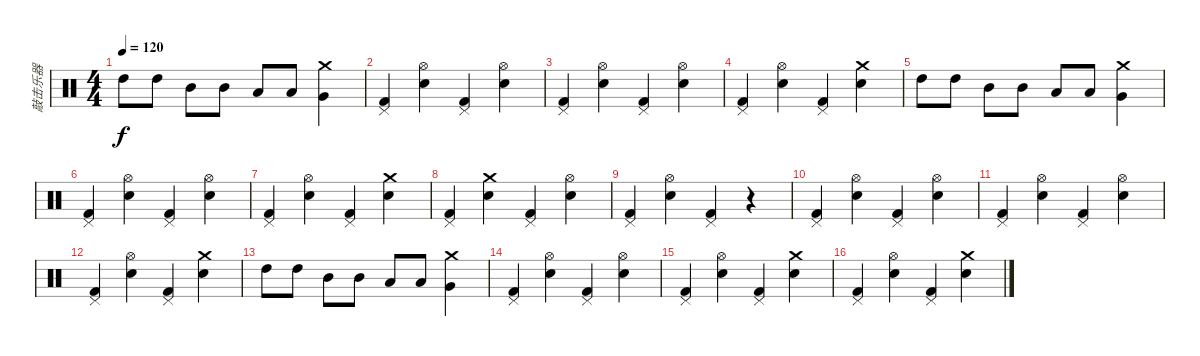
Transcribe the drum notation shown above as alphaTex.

\track ("敲击乐器" "敲击乐器") {instrument percussion}
\staff {score}
\articulation defaults
\ts (4 4)
\tempo 120
\clef neutral
\ks c "High Tom (hit)".8{dy f} "High Tom (hit)".8 "Mid Tom (hit)".8 "Mid Tom (hit)".8 "Low Tom (hit)".8 "Low Tom (hit)".8
("Crash medium (hit)" "Very Low Tom (hit)").4 |
("Pedal Hi-Hat (hit)" "Kick (hit) 2").4 ("Hi-Hat (open)" "Electric Snare (hit)").4 ("Pedal Hi-Hat (hit)" "Kick (hit) 2").4 ("Hi-Hat (open)" "Electric Snare (hit)").4 |
("Pedal Hi-Hat (hit)" "Kick (hit) 2").4 ("Hi-Hat (open)" "Electric Snare (hit)").4 ("Pedal Hi-Hat (hit)" "Kick (hit) 2").4 ("Hi-Hat (open)" "Electric Snare (hit)").4 |
("Pedal Hi-Hat (hit)" "Kick (hit) 2").4 ("Hi-Hat (open)" "Electric Snare (hit)").4 ("Pedal Hi-Hat (hit)" "Kick (hit) 2").4 ("Crash medium (hit)" "Electric Snare (hit)").4 |
"High Tom (hit)".8 "High Tom (hit)".8 "Mid Tom (hit)".8 "Mid Tom (hit)".8 "Low Tom (hit)".8 "Low Tom (hit)".8 ("Crash medium (hit)" "Very Low Tom (hit)").4 |
("Pedal Hi-Hat (hit)" "Kick (hit) 2").4 ("Hi-Hat (open)" "Electric Snare (hit)").4 ("Pedal Hi-Hat (hit)" "Kick (hit) 2").4 ("Hi-Hat (open)" "Electric Snare (hit)").4 |
("Pedal Hi-Hat (hit)" "Kick (hit) 2").4 ("Hi-Hat (open)" "Electric Snare (hit)").4 ("Pedal Hi-Hat (hit)" "Kick (hit) 2").4 ("Crash medium (hit)" "Electric Snare (hit)").4 |
("Pedal Hi-Hat (hit)" "Kick (hit) 2").4 ("Crash medium (hit)" "Electric Snare (hit)").4 ("Pedal Hi-Hat (hit)" "Kick (hit) 2").4 ("Hi-Hat (open)" "Electric Snare (hit)").4 |
("Pedal Hi-Hat (hit)" "Kick (hit) 2").4 ("Hi-Hat (open)" "Electric Snare (hit)").4 ("Pedal Hi-Hat (hit)" "Kick (hit) 2").4 r.4 |
("Pedal Hi-Hat (hit)" "Kick (hit) 2").4 ("Hi-Hat (open)" "Electric Snare (hit)").4 ("Pedal Hi-Hat (hit)" "Kick (hit) 2").4 ("Hi-Hat (open)" "Electric Snare (hit)").4 |
("Pedal Hi-Hat (hit)" "Kick (hit) 2").4 ("Hi-Hat (open)" "Electric Snare (hit)").4 ("Pedal Hi-Hat (hit)" "Kick (hit) 2").4 ("Hi-Hat (open)" "Electric Snare (hit)").4 |
("Pedal Hi-Hat (hit)" "Kick (hit) 2").4 ("Hi-Hat (open)" "Electric Snare (hit)").4 ("Pedal Hi-Hat (hit)" "Kick (hit) 2").4 ("Crash medium (hit)" "Electric Snare (hit)").4 |
"High Tom (hit)".8 "High Tom (hit)".8 "Mid Tom (hit)".8 "Mid Tom (hit)".8 "Low Tom (hit)".8 "Low Tom (hit)".8 ("Crash medium (hit)" "Very Low Tom (hit)").4 |
("Pedal Hi-Hat (hit)" "Kick (hit) 2").4 ("Hi-Hat (open)" "Electric Snare (hit)").4 ("Pedal Hi-Hat (hit)" "Kick (hit) 2").4 ("Hi-Hat (open)" "Electric Snare (hit)").4 |
("Pedal Hi-Hat (hit)" "Kick (hit) 2").4 ("Hi-Hat (open)" "Electric Snare (hit)").4 ("Pedal Hi-Hat (hit)" "Kick (hit) 2").4 ("Crash medium (hit)" "Electric Snare (hit)").4 |
("Pedal Hi-Hat (hit)" "Kick (hit) 2").4 ("Hi-Hat (open)" "Electric Snare (hit)").4 ("Pedal Hi-Hat (hit)" "Kick (hit) 2").4 ("Crash medium (hit)" "Electric Snare (hit)").4
